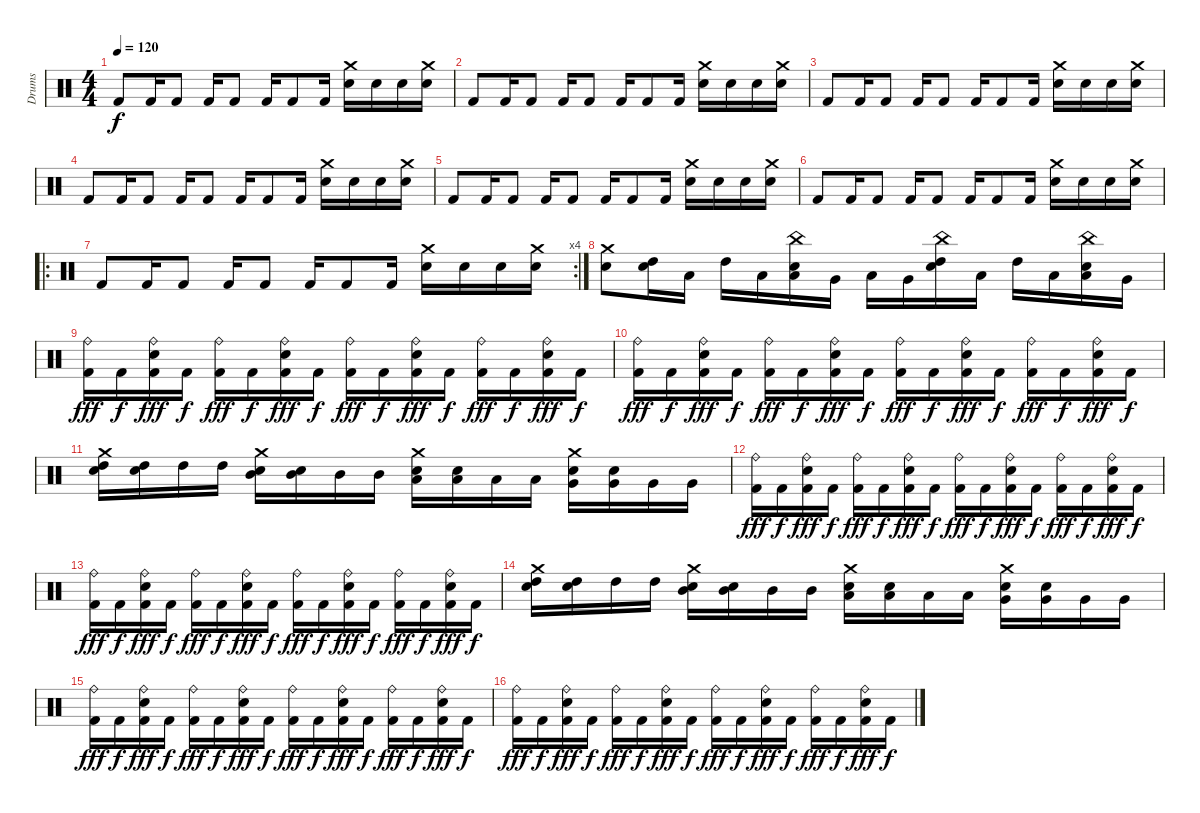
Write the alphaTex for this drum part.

\track ("Drums" "Drums") {instrument percussion}
\staff {score}
\articulation defaults
\ts (4 4)
\tempo 120
\clef neutral
\ks c "Kick (hit) 2".8{dy f} "Kick (hit) 2".16 "Kick (hit) 2".8 "Kick (hit) 2".16 "Kick (hit) 2".8 "Kick (hit) 2".16 "Kick (hit) 2".8 "Kick (hit) 2".16
("Crash medium (hit)" "Snare (hit) 2").16 "Snare (hit) 2".16 "Snare (hit) 2".16 ("Crash medium (hit)" "Snare (hit) 2").16 |
"Kick (hit) 2".8 "Kick (hit) 2".16 "Kick (hit) 2".8 "Kick (hit) 2".16 "Kick (hit) 2".8 "Kick (hit) 2".16 "Kick (hit) 2".8 "Kick (hit) 2".16 ("Crash medium (hit)" "Snare (hit) 2").16 "Snare (hit) 2".16 "Snare (hit) 2".16 ("Crash medium (hit)" "Snare (hit) 2").16 |
"Kick (hit) 2".8 "Kick (hit) 2".16 "Kick (hit) 2".8 "Kick (hit) 2".16 "Kick (hit) 2".8 "Kick (hit) 2".16 "Kick (hit) 2".8 "Kick (hit) 2".16 ("Crash medium (hit)" "Snare (hit) 2").16 "Snare (hit) 2".16 "Snare (hit) 2".16 ("Crash medium (hit)" "Snare (hit) 2").16 |
"Kick (hit) 2".8 "Kick (hit) 2".16 "Kick (hit) 2".8 "Kick (hit) 2".16 "Kick (hit) 2".8 "Kick (hit) 2".16 "Kick (hit) 2".8 "Kick (hit) 2".16 ("Crash medium (hit)" "Snare (hit) 2").16 "Snare (hit) 2".16 "Snare (hit) 2".16 ("Crash medium (hit)" "Snare (hit) 2").16 |
"Kick (hit) 2".8 "Kick (hit) 2".16 "Kick (hit) 2".8 "Kick (hit) 2".16 "Kick (hit) 2".8 "Kick (hit) 2".16 "Kick (hit) 2".8 "Kick (hit) 2".16 ("Crash medium (hit)" "Snare (hit) 2").16 "Snare (hit) 2".16 "Snare (hit) 2".16 ("Crash medium (hit)" "Snare (hit) 2").16 |
"Kick (hit) 2".8 "Kick (hit) 2".16 "Kick (hit) 2".8 "Kick (hit) 2".16 "Kick (hit) 2".8 "Kick (hit) 2".16 "Kick (hit) 2".8 "Kick (hit) 2".16 ("Crash medium (hit)" "Snare (hit) 2").16 "Snare (hit) 2".16 "Snare (hit) 2".16 ("Crash medium (hit)" "Snare (hit) 2").16 |
\ro
\rc 4 "Kick (hit) 2".8 "Kick (hit) 2".16 "Kick (hit) 2".8 "Kick (hit) 2".16 "Kick (hit) 2".8 "Kick (hit) 2".16 "Kick (hit) 2".8 "Kick (hit) 2".16
("Crash medium (hit)" "Snare (hit) 2").16 "Snare (hit) 2".16 "Snare (hit) 2".16 ("Crash medium (hit)" "Snare (hit) 2").16 |
("Crash medium (hit)" "Snare (hit) 2").8 ("High Tom (hit)" "Snare (hit) 2").16 "Low Tom (hit)".16 "High Tom (hit)".16 "Low Tom (hit)".16 ("China (hit)" "Low Tom (hit)" "Snare (hit) 2").16 "Very Low Tom (hit)".16 "Low Tom (hit)".16 "Very Low Tom (hit)".16 ("China (hit)" "High Tom (hit)" "Snare (hit) 2").16 "Low Tom (hit)".16 "High Tom (hit)".16 "Low Tom (hit)".16 ("China (hit)" "Low Tom (hit)" "Snare (hit) 2").16 "Very Low Tom (hit)".16 |
("Ride (bell)" "Kick (hit) 2").16{dy fff} "Kick (hit) 2".16{dy f} ("Ride (bell)" "Snare (hit) 2" "Kick (hit) 2").16{dy fff} "Kick (hit) 2".16{dy f} ("Ride (bell)" "Kick (hit) 2").16{dy fff} "Kick (hit) 2".16{dy f} ("Ride (bell)" "Snare (hit) 2" "Kick (hit) 2").16{dy fff} "Kick (hit) 2".16{dy f} ("Ride (bell)" "Kick (hit) 2").16{dy fff} "Kick (hit) 2".16{dy f} ("Ride (bell)" "Snare (hit) 2" "Kick (hit) 2").16{dy fff} "Kick (hit) 2".16{dy f} ("Ride (bell)" "Kick (hit) 2").16{dy fff} "Kick (hit) 2".16{dy f} ("Ride (bell)" "Snare (hit) 2" "Kick (hit) 2").16{dy fff} "Kick (hit) 2".16{dy f} |
("Ride (bell)" "Kick (hit) 2").16{dy fff} "Kick (hit) 2".16{dy f} ("Ride (bell)" "Snare (hit) 2" "Kick (hit) 2").16{dy fff} "Kick (hit) 2".16{dy f} ("Ride (bell)" "Kick (hit) 2").16{dy fff} "Kick (hit) 2".16{dy f} ("Ride (bell)" "Snare (hit) 2" "Kick (hit) 2").16{dy fff} "Kick (hit) 2".16{dy f} ("Ride (bell)" "Kick (hit) 2").16{dy fff} "Kick (hit) 2".16{dy f} ("Ride (bell)" "Snare (hit) 2" "Kick (hit) 2").16{dy fff} "Kick (hit) 2".16{dy f} ("Ride (bell)" "Kick (hit) 2").16{dy fff} "Kick (hit) 2".16{dy f} ("Ride (bell)" "Snare (hit) 2" "Kick (hit) 2").16{dy fff} "Kick (hit) 2".16{dy f} |
("Crash medium (hit)" "High Tom (hit)" "Snare (hit) 2").16 ("High Tom (hit)" "Snare (hit) 2").16 "High Tom (hit)".16 "High Tom (hit)".16 ("Crash medium (hit)" "Mid Tom (hit)" "Snare (hit) 2").16 ("Mid Tom (hit)" "Snare (hit) 2").16 "Mid Tom (hit)".16 "Mid Tom (hit)".16 ("Crash medium (hit)" "Low Tom (hit)" "Snare (hit) 2").16 ("Low Tom (hit)" "Snare (hit) 2").16 "Low Tom (hit)".16 "Low Tom (hit)".16 ("Crash medium (hit)" "Very Low Tom (hit)" "Snare (hit) 2").16 ("Very Low Tom (hit)" "Snare (hit) 2").16 "Very Low Tom (hit)".16 "Very Low Tom (hit)".16 |
("Ride (bell)" "Kick (hit) 2").16{dy fff} "Kick (hit) 2".16{dy f} ("Ride (bell)" "Snare (hit) 2" "Kick (hit) 2").16{dy fff} "Kick (hit) 2".16{dy f} ("Ride (bell)" "Kick (hit) 2").16{dy fff} "Kick (hit) 2".16{dy f} ("Ride (bell)" "Snare (hit) 2" "Kick (hit) 2").16{dy fff} "Kick (hit) 2".16{dy f} ("Ride (bell)" "Kick (hit) 2").16{dy fff} "Kick (hit) 2".16{dy f} ("Ride (bell)" "Snare (hit) 2" "Kick (hit) 2").16{dy fff} "Kick (hit) 2".16{dy f} ("Ride (bell)" "Kick (hit) 2").16{dy fff} "Kick (hit) 2".16{dy f} ("Ride (bell)" "Snare (hit) 2" "Kick (hit) 2").16{dy fff} "Kick (hit) 2".16{dy f} |
("Ride (bell)" "Kick (hit) 2").16{dy fff} "Kick (hit) 2".16{dy f} ("Ride (bell)" "Snare (hit) 2" "Kick (hit) 2").16{dy fff} "Kick (hit) 2".16{dy f} ("Ride (bell)" "Kick (hit) 2").16{dy fff} "Kick (hit) 2".16{dy f} ("Ride (bell)" "Snare (hit) 2" "Kick (hit) 2").16{dy fff} "Kick (hit) 2".16{dy f} ("Ride (bell)" "Kick (hit) 2").16{dy fff} "Kick (hit) 2".16{dy f} ("Ride (bell)" "Snare (hit) 2" "Kick (hit) 2").16{dy fff} "Kick (hit) 2".16{dy f} ("Ride (bell)" "Kick (hit) 2").16{dy fff} "Kick (hit) 2".16{dy f} ("Ride (bell)" "Snare (hit) 2" "Kick (hit) 2").16{dy fff} "Kick (hit) 2".16{dy f} |
("Crash medium (hit)" "High Tom (hit)" "Snare (hit) 2").16 ("High Tom (hit)" "Snare (hit) 2").16 "High Tom (hit)".16 "High Tom (hit)".16 ("Crash medium (hit)" "Mid Tom (hit)" "Snare (hit) 2").16 ("Mid Tom (hit)" "Snare (hit) 2").16 "Mid Tom (hit)".16 "Mid Tom (hit)".16 ("Crash medium (hit)" "Low Tom (hit)" "Snare (hit) 2").16 ("Low Tom (hit)" "Snare (hit) 2").16 "Low Tom (hit)".16 "Low Tom (hit)".16 ("Crash medium (hit)" "Very Low Tom (hit)" "Snare (hit) 2").16 ("Very Low Tom (hit)" "Snare (hit) 2").16 "Very Low Tom (hit)".16 "Very Low Tom (hit)".16 |
("Ride (bell)" "Kick (hit) 2").16{dy fff} "Kick (hit) 2".16{dy f} ("Ride (bell)" "Snare (hit) 2" "Kick (hit) 2").16{dy fff} "Kick (hit) 2".16{dy f} ("Ride (bell)" "Kick (hit) 2").16{dy fff} "Kick (hit) 2".16{dy f} ("Ride (bell)" "Snare (hit) 2" "Kick (hit) 2").16{dy fff} "Kick (hit) 2".16{dy f} ("Ride (bell)" "Kick (hit) 2").16{dy fff} "Kick (hit) 2".16{dy f} ("Ride (bell)" "Snare (hit) 2" "Kick (hit) 2").16{dy fff} "Kick (hit) 2".16{dy f} ("Ride (bell)" "Kick (hit) 2").16{dy fff} "Kick (hit) 2".16{dy f} ("Ride (bell)" "Snare (hit) 2" "Kick (hit) 2").16{dy fff} "Kick (hit) 2".16{dy f} |
("Ride (bell)" "Kick (hit) 2").16{dy fff} "Kick (hit) 2".16{dy f} ("Ride (bell)" "Snare (hit) 2" "Kick (hit) 2").16{dy fff} "Kick (hit) 2".16{dy f} ("Ride (bell)" "Kick (hit) 2").16{dy fff} "Kick (hit) 2".16{dy f} ("Ride (bell)" "Snare (hit) 2" "Kick (hit) 2").16{dy fff} "Kick (hit) 2".16{dy f} ("Ride (bell)" "Kick (hit) 2").16{dy fff} "Kick (hit) 2".16{dy f} ("Ride (bell)" "Snare (hit) 2" "Kick (hit) 2").16{dy fff} "Kick (hit) 2".16{dy f} ("Ride (bell)" "Kick (hit) 2").16{dy fff} "Kick (hit) 2".16{dy f} ("Ride (bell)" "Snare (hit) 2" "Kick (hit) 2").16{dy fff} "Kick (hit) 2".16{dy f}
